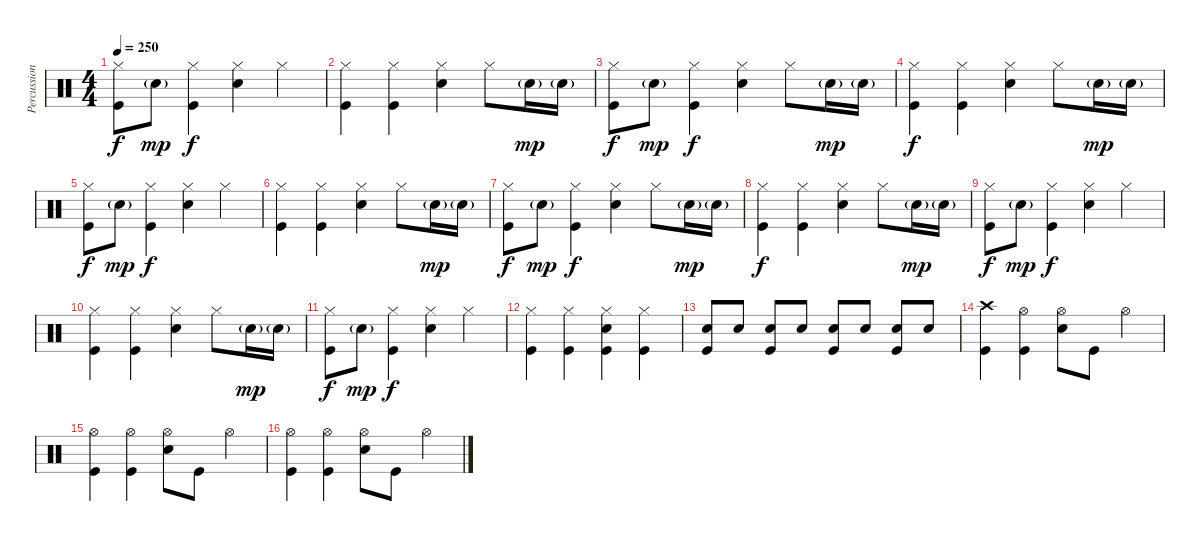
\track ("Percussion" "Percussion") {instrument percussion}
\staff {score}
\articulation defaults
\ts (4 4)
\tempo 250
\clef neutral
\ks c
("Hi-Hat (closed)" "Kick (hit)").8{dy f} "Snare (hit) 2"{g}.8{dy mp} ("Hi-Hat (closed)" "Kick (hit)").4{dy f} ("Hi-Hat (closed)" "Snare (hit) 2").4 "Hi-Hat (closed)".4 |
("Hi-Hat (closed)" "Kick (hit)").4 ("Hi-Hat (closed)" "Kick (hit)").4 ("Hi-Hat (closed)" "Snare (hit) 2").4 "Hi-Hat (closed)".8 "Snare (hit) 2"{g}.16{dy mp} "Snare (hit) 2"{g}.16 |
("Hi-Hat (closed)" "Kick (hit)").8{dy f} "Snare (hit) 2"{g}.8{dy mp} ("Hi-Hat (closed)" "Kick (hit)").4{dy f} ("Hi-Hat (closed)" "Snare (hit) 2").4 "Hi-Hat (closed)".8 "Snare (hit) 2"{g}.16{dy mp} "Snare (hit) 2"{g}.16 |
("Hi-Hat (closed)" "Kick (hit)").4{dy f} ("Hi-Hat (closed)" "Kick (hit)").4 ("Hi-Hat (closed)" "Snare (hit) 2").4 "Hi-Hat (closed)".8 "Snare (hit) 2"{g}.16{dy mp} "Snare (hit) 2"{g}.16 |
("Hi-Hat (closed)" "Kick (hit)").8{dy f} "Snare (hit) 2"{g}.8{dy mp} ("Hi-Hat (closed)" "Kick (hit)").4{dy f} ("Hi-Hat (closed)" "Snare (hit) 2").4 "Hi-Hat (closed)".4 |
("Hi-Hat (closed)" "Kick (hit)").4 ("Hi-Hat (closed)" "Kick (hit)").4 ("Hi-Hat (closed)" "Snare (hit) 2").4 "Hi-Hat (closed)".8 "Snare (hit) 2"{g}.16{dy mp} "Snare (hit) 2"{g}.16 |
("Hi-Hat (closed)" "Kick (hit)").8{dy f} "Snare (hit) 2"{g}.8{dy mp} ("Hi-Hat (closed)" "Kick (hit)").4{dy f} ("Hi-Hat (closed)" "Snare (hit) 2").4 "Hi-Hat (closed)".8 "Snare (hit) 2"{g}.16{dy mp} "Snare (hit) 2"{g}.16 |
("Hi-Hat (closed)" "Kick (hit)").4{dy f} ("Hi-Hat (closed)" "Kick (hit)").4 ("Hi-Hat (closed)" "Snare (hit) 2").4 "Hi-Hat (closed)".8 "Snare (hit) 2"{g}.16{dy mp} "Snare (hit) 2"{g}.16 |
("Hi-Hat (closed)" "Kick (hit)").8{dy f} "Snare (hit) 2"{g}.8{dy mp} ("Hi-Hat (closed)" "Kick (hit)").4{dy f} ("Hi-Hat (closed)" "Snare (hit) 2").4 "Hi-Hat (closed)".4 |
("Hi-Hat (closed)" "Kick (hit)").4 ("Hi-Hat (closed)" "Kick (hit)").4 ("Hi-Hat (closed)" "Snare (hit) 2").4 "Hi-Hat (closed)".8 "Snare (hit) 2"{g}.16{dy mp} "Snare (hit) 2"{g}.16 |
("Hi-Hat (closed)" "Kick (hit)").8{dy f} "Snare (hit) 2"{g}.8{dy mp} ("Hi-Hat (closed)" "Kick (hit)").4{dy f} ("Hi-Hat (closed)" "Snare (hit) 2").4 "Hi-Hat (closed)".4 |
("Hi-Hat (closed)" "Kick (hit)").4 ("Hi-Hat (closed)" "Kick (hit)").4 ("Hi-Hat (closed)" "Snare (hit) 2" "Kick (hit)").4 ("Hi-Hat (closed)" "Kick (hit)").4 |
("Snare (hit) 2" "Kick (hit)").8 "Snare (hit) 2".8 ("Snare (hit) 2" "Kick (hit)").8 "Snare (hit) 2".8 ("Snare (hit) 2" "Kick (hit)").8 "Snare (hit) 2".8 ("Snare (hit) 2" "Kick (hit)").8 "Snare (hit) 2".8 |
("Crash high (hit)" "Kick (hit)").4 ("Hi-Hat (open)" "Kick (hit)").4 ("Hi-Hat (open)" "Snare (hit) 2").8 "Kick (hit)".8 "Hi-Hat (open)".4 |
("Hi-Hat (open)" "Kick (hit)").4 ("Hi-Hat (open)" "Kick (hit)").4 ("Hi-Hat (open)" "Snare (hit) 2").8 "Kick (hit)".8 "Hi-Hat (open)".4 |
("Hi-Hat (open)" "Kick (hit)").4 ("Hi-Hat (open)" "Kick (hit)").4 ("Hi-Hat (open)" "Snare (hit) 2").8 "Kick (hit)".8 "Hi-Hat (open)".4
